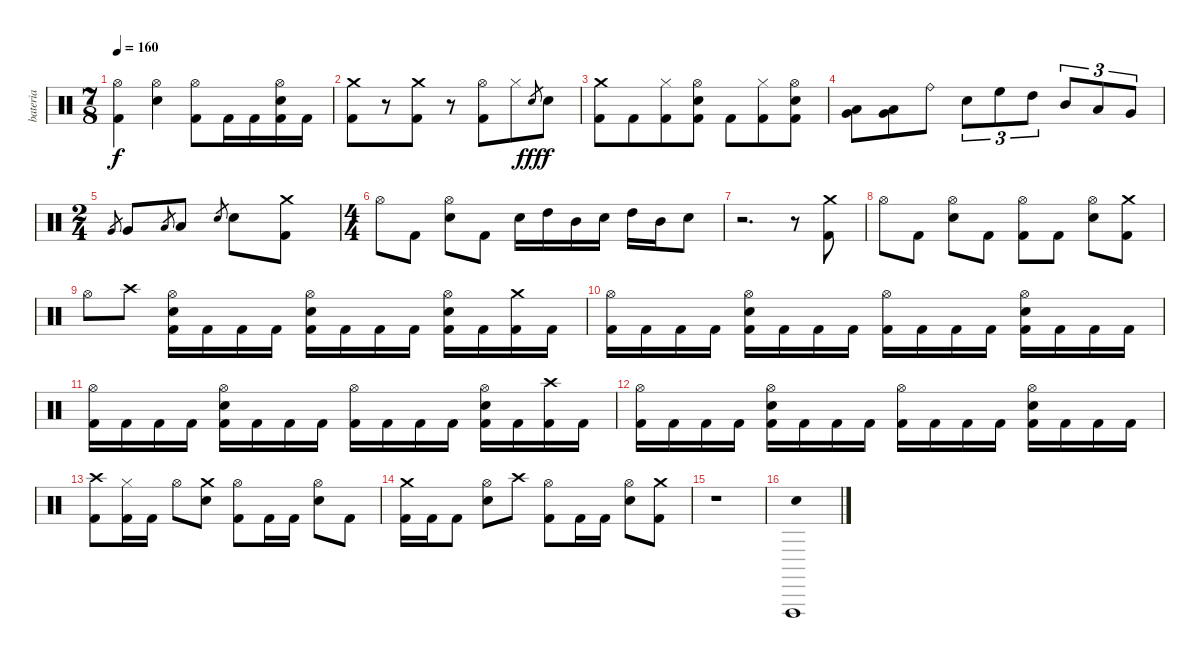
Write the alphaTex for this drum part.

\track ("bateria" "bateria") {instrument percussion}
\staff {score}
\articulation defaults
\ts (7 8)
\tempo 160
\clef neutral
\ks c
("Hi-Hat (open)" "Kick (hit) 2").4{dy f} ("Hi-Hat (open)" "Electric Snare (hit)").4 ("Hi-Hat (open)" "Kick (hit) 2").8 "Kick (hit) 2".16 "Kick (hit) 2".16 ("Hi-Hat (open)" "Electric Snare (hit)" "Kick (hit) 2").16 "Kick (hit) 2".16 |
("Crash medium (hit)" "Kick (hit) 2").8 r.8{volume 0} ("Crash medium (hit)" "Kick (hit) 2").8{volume 15} r.8{volume 0} ("Hi-Hat (open)" "Kick (hit) 2").8{volume 15} "Hi-Hat (closed)".8 "Electric Snare (hit)".8{gr dy fff} "Electric Snare (hit)".8{dy f} |
("Crash medium (hit)" "Kick (hit) 2").8 "Kick (hit) 2".8 ("Hi-Hat (closed)" "Kick (hit) 2").8 ("Hi-Hat (open)" "Electric Snare (hit)" "Kick (hit) 2").8 "Kick (hit) 2".8 ("Hi-Hat (closed)" "Kick (hit) 2").8 ("Hi-Hat (open)" "Electric Snare (hit)" "Kick (hit) 2").8 |
("Very Low Tom (hit)" "Low Floor Tom (hit)").8 ("Very Low Tom (hit)" "Low Floor Tom (hit)").8 "Ride (bell)".8 "Electric Snare (hit)".8{tu (3 2)} "High Floor Tom (hit)".8{tu (3 2)} "High Tom (hit)".8{tu (3 2)} "Mid Tom (hit)".8{tu (3 2)} "Low Tom (hit)".8{tu (3 2)} "Very Low Tom (hit)".8{tu (3 2)} |
\ts (2 4)
"Very Low Tom (hit)".8{gr} "Very Low Tom (hit)".8 "Low Floor Tom (hit)".8{gr} "Low Floor Tom (hit)".8 "Electric Snare (hit)".8{gr} "Electric Snare (hit)".8 ("Crash medium (hit)" "Kick (hit) 2").8 |
\ts (4 4)
"Hi-Hat (open)".8 "Kick (hit) 2".8 ("Hi-Hat (open)" "Electric Snare (hit)").8 "Kick (hit) 2".8 "Electric Snare (hit)".16 "High Tom (hit)".16 "Mid Tom (hit)".16 "Electric Snare (hit)".16 "High Tom (hit)".16 "Mid Tom (hit)".16 "Electric Snare (hit)".8 |
r.2{d} r.8 ("Crash medium (hit)" "Kick (hit) 2").8 |
"Hi-Hat (open)".8 "Kick (hit) 2".8 ("Hi-Hat (open)" "Electric Snare (hit)").8 "Kick (hit) 2".8 ("Hi-Hat (open)" "Kick (hit) 2").8 "Kick (hit) 2".8 ("Hi-Hat (open)" "Electric Snare (hit)").8 ("Crash medium (hit)" "Kick (hit) 2").8 |
"Hi-Hat (open)".8 "Crash high (hit)".8 ("Hi-Hat (open)" "Electric Snare (hit)" "Kick (hit) 2").16 "Kick (hit) 2".16 "Kick (hit) 2".16 "Kick (hit) 2".16 ("Hi-Hat (open)" "Electric Snare (hit)" "Kick (hit) 2").16 "Kick (hit) 2".16 "Kick (hit) 2".16 "Kick (hit) 2".16 ("Hi-Hat (open)" "Electric Snare (hit)" "Kick (hit) 2").16 "Kick (hit) 2".16 ("Crash medium (hit)" "Kick (hit) 2").16 "Kick (hit) 2".16 |
("Hi-Hat (open)" "Kick (hit) 2").16 "Kick (hit) 2".16 "Kick (hit) 2".16 "Kick (hit) 2".16 ("Hi-Hat (open)" "Electric Snare (hit)" "Kick (hit) 2").16 "Kick (hit) 2".16 "Kick (hit) 2".16 "Kick (hit) 2".16 ("Hi-Hat (open)" "Kick (hit) 2").16 "Kick (hit) 2".16 "Kick (hit) 2".16 "Kick (hit) 2".16 ("Hi-Hat (open)" "Electric Snare (hit)" "Kick (hit) 2").16 "Kick (hit) 2".16 "Kick (hit) 2".16 "Kick (hit) 2".16 |
("Hi-Hat (open)" "Kick (hit) 2").16 "Kick (hit) 2".16 "Kick (hit) 2".16 "Kick (hit) 2".16 ("Hi-Hat (open)" "Electric Snare (hit)" "Kick (hit) 2").16 "Kick (hit) 2".16 "Kick (hit) 2".16 "Kick (hit) 2".16 ("Hi-Hat (open)" "Kick (hit) 2").16 "Kick (hit) 2".16 "Kick (hit) 2".16 "Kick (hit) 2".16 ("Hi-Hat (open)" "Electric Snare (hit)" "Kick (hit) 2").16 "Kick (hit) 2".16 ("Crash high (hit)" "Kick (hit) 2").16 "Kick (hit) 2".16 |
("Hi-Hat (open)" "Kick (hit) 2").16 "Kick (hit) 2".16 "Kick (hit) 2".16 "Kick (hit) 2".16 ("Hi-Hat (open)" "Electric Snare (hit)" "Kick (hit) 2").16 "Kick (hit) 2".16 "Kick (hit) 2".16 "Kick (hit) 2".16 ("Hi-Hat (open)" "Kick (hit) 2").16 "Kick (hit) 2".16 "Kick (hit) 2".16 "Kick (hit) 2".16 ("Hi-Hat (open)" "Electric Snare (hit)" "Kick (hit) 2").16 "Kick (hit) 2".16 "Kick (hit) 2".16 "Kick (hit) 2".16 |
("Crash high (hit)" "Kick (hit) 2").8 ("Hi-Hat (closed)" "Kick (hit) 2").16 "Kick (hit) 2".16 "Hi-Hat (open)".8 ("Crash medium (hit)" "Electric Snare (hit)").8 ("Hi-Hat (open)" "Kick (hit) 2").8 "Kick (hit) 2".16 "Kick (hit) 2".16 ("Hi-Hat (open)" "Electric Snare (hit)").8 "Kick (hit) 2".8 |
("Crash medium (hit)" "Kick (hit) 2").16 "Kick (hit) 2".16 "Kick (hit) 2".8 ("Hi-Hat (open)" "Electric Snare (hit)").8 "Crash high (hit)".8 ("Hi-Hat (open)" "Kick (hit) 2").8 "Kick (hit) 2".16 "Kick (hit) 2".16 ("Hi-Hat (open)" "Electric Snare (hit)").8 ("Crash medium (hit)" "Kick (hit) 2").8 |
r.1 |
("Metronome (bell)" "Vibraslap (hit)").1
